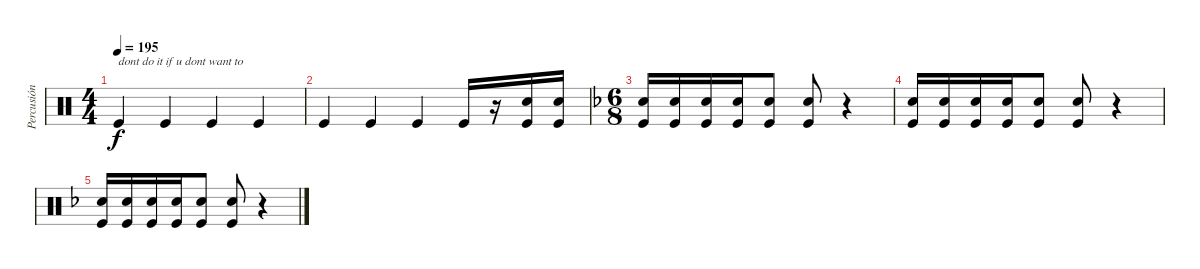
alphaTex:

\track ("Percusión" "Percusión") {instrument percussion}
\staff {score}
\articulation defaults
\ts (4 4)
\tempo 195
\clef neutral
\ks c "Kick (hit)".4{txt "dont do it if u dont want to" dy f} "Kick (hit)".4 "Kick (hit)".4 "Kick (hit)".4
|
"Kick (hit)".4 "Kick (hit)".4 "Kick (hit)".4 "Kick (hit)".16 r.16 ("Electric Snare (hit)" "Kick (hit)").16 ("Electric Snare (hit)" "Kick (hit)").16 |
\ts (6 8)
\ks f
("Electric Snare (hit)" "Kick (hit)").16 ("Electric Snare (hit)" "Kick (hit)").16 ("Electric Snare (hit)" "Kick (hit)").16 ("Electric Snare (hit)" "Kick (hit)").16 ("Electric Snare (hit)" "Kick (hit)").8 ("Electric Snare (hit)" "Kick (hit)").8 r.4 |
("Electric Snare (hit)" "Kick (hit)").16 ("Electric Snare (hit)" "Kick (hit)").16 ("Electric Snare (hit)" "Kick (hit)").16 ("Electric Snare (hit)" "Kick (hit)").16 ("Electric Snare (hit)" "Kick (hit)").8 ("Electric Snare (hit)" "Kick (hit)").8 r.4 |
("Electric Snare (hit)" "Kick (hit)").16 ("Electric Snare (hit)" "Kick (hit)").16 ("Electric Snare (hit)" "Kick (hit)").16 ("Electric Snare (hit)" "Kick (hit)").16 ("Electric Snare (hit)" "Kick (hit)").8 ("Electric Snare (hit)" "Kick (hit)").8 r.4
